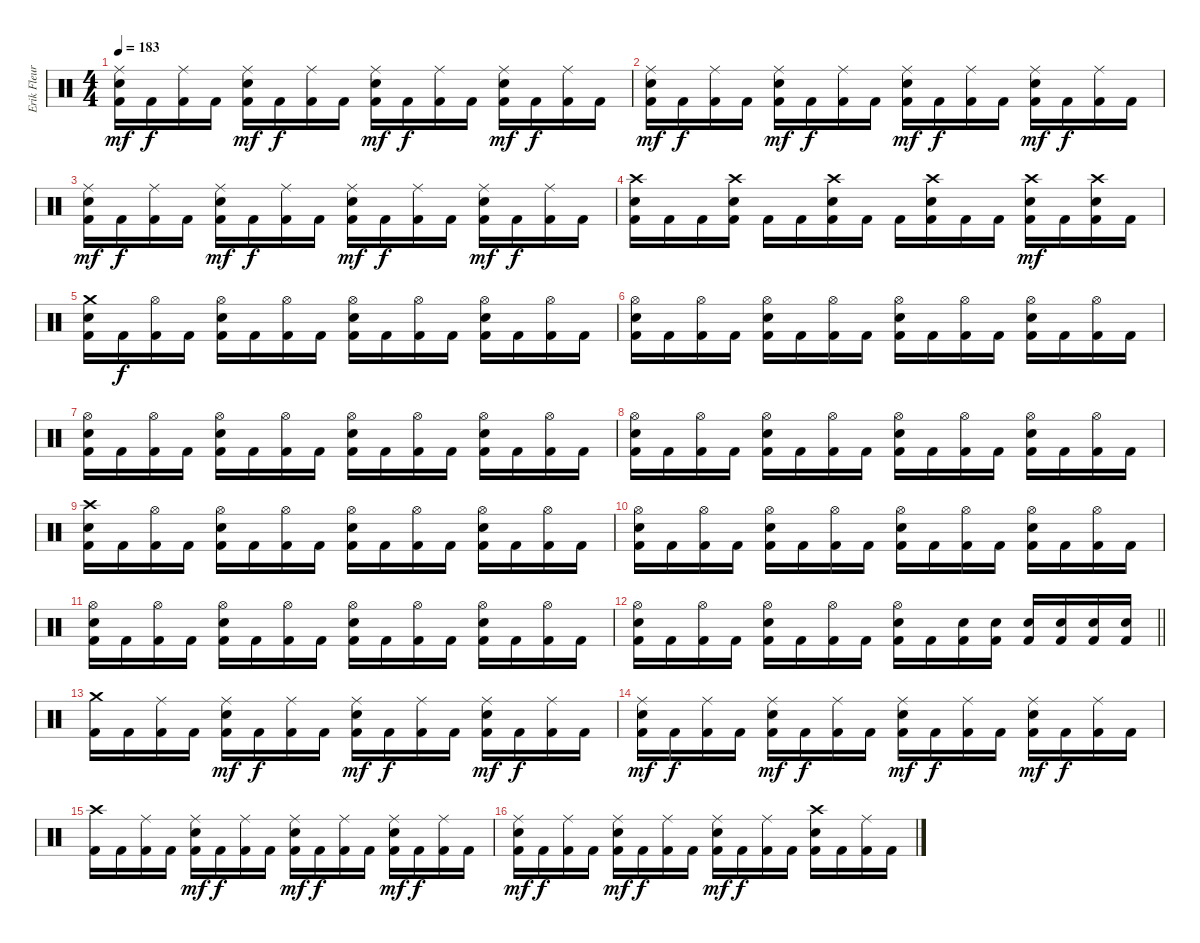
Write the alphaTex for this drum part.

\track ("Erik Fleuren" "Erik Fleur") {instrument percussion}
\staff {score}
\articulation defaults
\ts (4 4)
\tempo 183
\clef neutral
\ks c
("Ride (middle)" "Electric Snare (hit)" "Kick (hit) 2").16{dy mf} "Kick (hit) 2".16{dy f} ("Ride (middle)" "Kick (hit) 2").16 "Kick (hit) 2".16 ("Ride (middle)" "Electric Snare (hit)" "Kick (hit) 2").16{dy mf} "Kick (hit) 2".16{dy f} ("Ride (middle)" "Kick (hit) 2").16 "Kick (hit) 2".16 ("Ride (middle)" "Electric Snare (hit)" "Kick (hit) 2").16{dy mf} "Kick (hit) 2".16{dy f} ("Ride (middle)" "Kick (hit) 2").16 "Kick (hit) 2".16 ("Ride (middle)" "Electric Snare (hit)" "Kick (hit) 2").16{dy mf} "Kick (hit) 2".16{dy f} ("Ride (middle)" "Kick (hit) 2").16 "Kick (hit) 2".16 |
("Ride (middle)" "Electric Snare (hit)" "Kick (hit) 2").16{dy mf} "Kick (hit) 2".16{dy f} ("Ride (middle)" "Kick (hit) 2").16 "Kick (hit) 2".16 ("Ride (middle)" "Electric Snare (hit)" "Kick (hit) 2").16{dy mf} "Kick (hit) 2".16{dy f} ("Ride (middle)" "Kick (hit) 2").16 "Kick (hit) 2".16 ("Ride (middle)" "Electric Snare (hit)" "Kick (hit) 2").16{dy mf} "Kick (hit) 2".16{dy f} ("Ride (middle)" "Kick (hit) 2").16 "Kick (hit) 2".16 ("Ride (middle)" "Electric Snare (hit)" "Kick (hit) 2").16{dy mf} "Kick (hit) 2".16{dy f} ("Ride (middle)" "Kick (hit) 2").16 "Kick (hit) 2".16 |
("Ride (middle)" "Electric Snare (hit)" "Kick (hit) 2").16{dy mf} "Kick (hit) 2".16{dy f} ("Ride (middle)" "Kick (hit) 2").16 "Kick (hit) 2".16 ("Ride (middle)" "Electric Snare (hit)" "Kick (hit) 2").16{dy mf} "Kick (hit) 2".16{dy f} ("Ride (middle)" "Kick (hit) 2").16 "Kick (hit) 2".16 ("Ride (middle)" "Electric Snare (hit)" "Kick (hit) 2").16{dy mf} "Kick (hit) 2".16{dy f} ("Ride (middle)" "Kick (hit) 2").16 "Kick (hit) 2".16 ("Ride (middle)" "Electric Snare (hit)" "Kick (hit) 2").16{dy mf} "Kick (hit) 2".16{dy f} ("Ride (middle)" "Kick (hit) 2").16 "Kick (hit) 2".16 |
("Crash high (hit)" "Electric Snare (hit)" "Kick (hit) 2").16 "Kick (hit) 2".16 "Kick (hit) 2".16 ("Crash high (hit)" "Electric Snare (hit)" "Kick (hit) 2").16 "Kick (hit) 2".16 "Kick (hit) 2".16 ("Crash high (hit)" "Electric Snare (hit)" "Kick (hit) 2").16 "Kick (hit) 2".16 "Kick (hit) 2".16 ("Crash high (hit)" "Electric Snare (hit)" "Kick (hit) 2").16 "Kick (hit) 2".16 "Kick (hit) 2".16 ("Crash high (hit)" "Electric Snare (hit)" "Kick (hit) 2").16{dy mf} "Kick (hit) 2".16 ("Crash high (hit)" "Electric Snare (hit)" "Kick (hit) 2").16 "Kick (hit) 2".16 |
("Crash medium (hit)" "Electric Snare (hit)" "Kick (hit) 2").16 "Kick (hit) 2".16{dy f} ("Hi-Hat (open)" "Kick (hit) 2").16 "Kick (hit) 2".16 ("Hi-Hat (open)" "Electric Snare (hit)" "Kick (hit) 2").16 "Kick (hit) 2".16 ("Hi-Hat (open)" "Kick (hit) 2").16 "Kick (hit) 2".16 ("Hi-Hat (open)" "Electric Snare (hit)" "Kick (hit) 2").16 "Kick (hit) 2".16 ("Hi-Hat (open)" "Kick (hit) 2").16 "Kick (hit) 2".16 ("Hi-Hat (open)" "Electric Snare (hit)" "Kick (hit) 2").16 "Kick (hit) 2".16 ("Hi-Hat (open)" "Kick (hit) 2").16 "Kick (hit) 2".16 |
("Hi-Hat (open)" "Electric Snare (hit)" "Kick (hit) 2").16 "Kick (hit) 2".16 ("Hi-Hat (open)" "Kick (hit) 2").16 "Kick (hit) 2".16 ("Hi-Hat (open)" "Electric Snare (hit)" "Kick (hit) 2").16 "Kick (hit) 2".16 ("Hi-Hat (open)" "Kick (hit) 2").16 "Kick (hit) 2".16 ("Hi-Hat (open)" "Electric Snare (hit)" "Kick (hit) 2").16 "Kick (hit) 2".16 ("Hi-Hat (open)" "Kick (hit) 2").16 "Kick (hit) 2".16 ("Hi-Hat (open)" "Electric Snare (hit)" "Kick (hit) 2").16 "Kick (hit) 2".16 ("Hi-Hat (open)" "Kick (hit) 2").16 "Kick (hit) 2".16 |
("Hi-Hat (open)" "Electric Snare (hit)" "Kick (hit) 2").16 "Kick (hit) 2".16 ("Hi-Hat (open)" "Kick (hit) 2").16 "Kick (hit) 2".16 ("Hi-Hat (open)" "Electric Snare (hit)" "Kick (hit) 2").16 "Kick (hit) 2".16 ("Hi-Hat (open)" "Kick (hit) 2").16 "Kick (hit) 2".16 ("Hi-Hat (open)" "Electric Snare (hit)" "Kick (hit) 2").16 "Kick (hit) 2".16 ("Hi-Hat (open)" "Kick (hit) 2").16 "Kick (hit) 2".16 ("Hi-Hat (open)" "Electric Snare (hit)" "Kick (hit) 2").16 "Kick (hit) 2".16 ("Hi-Hat (open)" "Kick (hit) 2").16 "Kick (hit) 2".16 |
("Hi-Hat (open)" "Electric Snare (hit)" "Kick (hit) 2").16 "Kick (hit) 2".16 ("Hi-Hat (open)" "Kick (hit) 2").16 "Kick (hit) 2".16 ("Hi-Hat (open)" "Electric Snare (hit)" "Kick (hit) 2").16 "Kick (hit) 2".16 ("Hi-Hat (open)" "Kick (hit) 2").16 "Kick (hit) 2".16 ("Hi-Hat (open)" "Electric Snare (hit)" "Kick (hit) 2").16 "Kick (hit) 2".16 ("Hi-Hat (open)" "Kick (hit) 2").16 "Kick (hit) 2".16 ("Hi-Hat (open)" "Electric Snare (hit)" "Kick (hit) 2").16 "Kick (hit) 2".16 ("Hi-Hat (open)" "Kick (hit) 2").16 "Kick (hit) 2".16 |
("Crash high (hit)" "Electric Snare (hit)" "Kick (hit) 2").16 "Kick (hit) 2".16 ("Hi-Hat (open)" "Kick (hit) 2").16 "Kick (hit) 2".16 ("Hi-Hat (open)" "Electric Snare (hit)" "Kick (hit) 2").16 "Kick (hit) 2".16 ("Hi-Hat (open)" "Kick (hit) 2").16 "Kick (hit) 2".16 ("Hi-Hat (open)" "Electric Snare (hit)" "Kick (hit) 2").16 "Kick (hit) 2".16 ("Hi-Hat (open)" "Kick (hit) 2").16 "Kick (hit) 2".16 ("Hi-Hat (open)" "Electric Snare (hit)" "Kick (hit) 2").16 "Kick (hit) 2".16 ("Hi-Hat (open)" "Kick (hit) 2").16 "Kick (hit) 2".16 |
("Hi-Hat (open)" "Electric Snare (hit)" "Kick (hit) 2").16 "Kick (hit) 2".16 ("Hi-Hat (open)" "Kick (hit) 2").16 "Kick (hit) 2".16 ("Hi-Hat (open)" "Electric Snare (hit)" "Kick (hit) 2").16 "Kick (hit) 2".16 ("Hi-Hat (open)" "Kick (hit) 2").16 "Kick (hit) 2".16 ("Hi-Hat (open)" "Electric Snare (hit)" "Kick (hit) 2").16 "Kick (hit) 2".16 ("Hi-Hat (open)" "Kick (hit) 2").16 "Kick (hit) 2".16 ("Hi-Hat (open)" "Electric Snare (hit)" "Kick (hit) 2").16 "Kick (hit) 2".16 ("Hi-Hat (open)" "Kick (hit) 2").16 "Kick (hit) 2".16 |
("Hi-Hat (open)" "Electric Snare (hit)" "Kick (hit) 2").16 "Kick (hit) 2".16 ("Hi-Hat (open)" "Kick (hit) 2").16 "Kick (hit) 2".16 ("Hi-Hat (open)" "Electric Snare (hit)" "Kick (hit) 2").16 "Kick (hit) 2".16 ("Hi-Hat (open)" "Kick (hit) 2").16 "Kick (hit) 2".16 ("Hi-Hat (open)" "Electric Snare (hit)" "Kick (hit) 2").16 "Kick (hit) 2".16 ("Hi-Hat (open)" "Kick (hit) 2").16 "Kick (hit) 2".16 ("Hi-Hat (open)" "Electric Snare (hit)" "Kick (hit) 2").16 "Kick (hit) 2".16 ("Hi-Hat (open)" "Kick (hit) 2").16 "Kick (hit) 2".16 |
\barLineRight lightlight
("Hi-Hat (open)" "Electric Snare (hit)" "Kick (hit) 2").16 "Kick (hit) 2".16 ("Hi-Hat (open)" "Kick (hit) 2").16 "Kick (hit) 2".16 ("Hi-Hat (open)" "Electric Snare (hit)" "Kick (hit) 2").16 "Kick (hit) 2".16 ("Hi-Hat (open)" "Kick (hit) 2").16 "Kick (hit) 2".16 ("Hi-Hat (open)" "Electric Snare (hit)" "Kick (hit) 2").16 "Kick (hit) 2".16 ("Electric Snare (hit)" "Kick (hit) 2").16 ("Electric Snare (hit)" "Kick (hit) 2").16 ("Electric Snare (hit)" "Kick (hit) 2").16 ("Electric Snare (hit)" "Kick (hit) 2").16 ("Electric Snare (hit)" "Kick (hit) 2").16 ("Electric Snare (hit)" "Kick (hit) 2").16 |
("Crash medium (hit)" "Kick (hit) 2").16 "Kick (hit) 2".16 ("Ride (middle)" "Kick (hit) 2").16 "Kick (hit) 2".16 ("Ride (middle)" "Electric Snare (hit)" "Kick (hit) 2").16{dy mf} "Kick (hit) 2".16{dy f} ("Ride (middle)" "Kick (hit) 2").16 "Kick (hit) 2".16 ("Ride (middle)" "Electric Snare (hit)" "Kick (hit) 2").16{dy mf} "Kick (hit) 2".16{dy f} ("Ride (middle)" "Kick (hit) 2").16 "Kick (hit) 2".16 ("Ride (middle)" "Electric Snare (hit)" "Kick (hit) 2").16{dy mf} "Kick (hit) 2".16{dy f} ("Ride (middle)" "Kick (hit) 2").16 "Kick (hit) 2".16 |
("Ride (middle)" "Electric Snare (hit)" "Kick (hit) 2").16{dy mf} "Kick (hit) 2".16{dy f} ("Ride (middle)" "Kick (hit) 2").16 "Kick (hit) 2".16 ("Ride (middle)" "Electric Snare (hit)" "Kick (hit) 2").16{dy mf} "Kick (hit) 2".16{dy f} ("Ride (middle)" "Kick (hit) 2").16 "Kick (hit) 2".16 ("Ride (middle)" "Electric Snare (hit)" "Kick (hit) 2").16{dy mf} "Kick (hit) 2".16{dy f} ("Ride (middle)" "Kick (hit) 2").16 "Kick (hit) 2".16 ("Ride (middle)" "Electric Snare (hit)" "Kick (hit) 2").16{dy mf} "Kick (hit) 2".16{dy f} ("Ride (middle)" "Kick (hit) 2").16 "Kick (hit) 2".16 |
("Crash high (hit)" "Kick (hit) 2").16 "Kick (hit) 2".16 ("Ride (middle)" "Kick (hit) 2").16 "Kick (hit) 2".16 ("Ride (middle)" "Electric Snare (hit)" "Kick (hit) 2").16{dy mf} "Kick (hit) 2".16{dy f} ("Ride (middle)" "Kick (hit) 2").16 "Kick (hit) 2".16 ("Ride (middle)" "Electric Snare (hit)" "Kick (hit) 2").16{dy mf} "Kick (hit) 2".16{dy f} ("Ride (middle)" "Kick (hit) 2").16 "Kick (hit) 2".16 ("Ride (middle)" "Electric Snare (hit)" "Kick (hit) 2").16{dy mf} "Kick (hit) 2".16{dy f} ("Ride (middle)" "Kick (hit) 2").16 "Kick (hit) 2".16 |
("Ride (middle)" "Electric Snare (hit)" "Kick (hit) 2").16{dy mf} "Kick (hit) 2".16{dy f} ("Ride (middle)" "Kick (hit) 2").16 "Kick (hit) 2".16 ("Ride (middle)" "Electric Snare (hit)" "Kick (hit) 2").16{dy mf} "Kick (hit) 2".16{dy f} ("Ride (middle)" "Kick (hit) 2").16 "Kick (hit) 2".16 ("Ride (middle)" "Electric Snare (hit)" "Kick (hit) 2").16{dy mf} "Kick (hit) 2".16{dy f} ("Ride (middle)" "Kick (hit) 2").16 "Kick (hit) 2".16 ("Crash high (hit)" "Electric Snare (hit)" "Kick (hit) 2").16 "Kick (hit) 2".16 ("Ride (middle)" "Kick (hit) 2").16 "Kick (hit) 2".16
